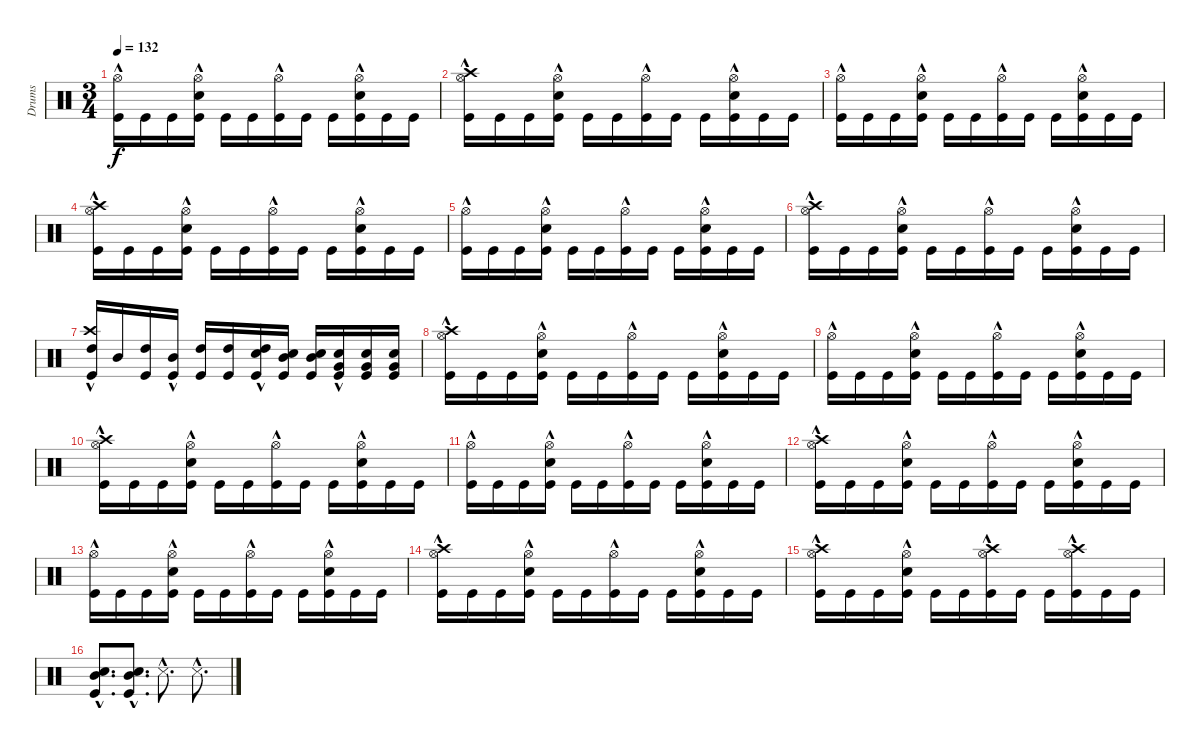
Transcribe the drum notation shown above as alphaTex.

\track ("Drums" "Drums") {instrument percussion}
\staff {score}
\articulation defaults
\ts (3 4)
\tempo 132
\clef neutral
\ks c
("Hi-Hat (open)"{hac} "Kick (hit)").16{dy f} "Kick (hit)".16 "Kick (hit)".16 ("Hi-Hat (open)"{hac} "Kick (hit)" "Electric Snare (hit)").16 "Kick (hit)".16 "Kick (hit)".16 ("Hi-Hat (open)"{hac} "Kick (hit)").16 "Kick (hit)".16 "Kick (hit)".16 ("Hi-Hat (open)"{hac} "Kick (hit)" "Electric Snare (hit)").16 "Kick (hit)".16 "Kick (hit)".16 |
("Crash high (hit)" "Hi-Hat (open)"{hac} "Kick (hit)").16 "Kick (hit)".16 "Kick (hit)".16 ("Hi-Hat (open)"{hac} "Kick (hit)" "Electric Snare (hit)").16 "Kick (hit)".16 "Kick (hit)".16 ("Hi-Hat (open)"{hac} "Kick (hit)").16 "Kick (hit)".16 "Kick (hit)".16 ("Hi-Hat (open)"{hac} "Kick (hit)" "Electric Snare (hit)").16 "Kick (hit)".16 "Kick (hit)".16 |
("Hi-Hat (open)"{hac} "Kick (hit)").16 "Kick (hit)".16 "Kick (hit)".16 ("Hi-Hat (open)"{hac} "Kick (hit)" "Electric Snare (hit)").16 "Kick (hit)".16 "Kick (hit)".16 ("Hi-Hat (open)"{hac} "Kick (hit)").16 "Kick (hit)".16 "Kick (hit)".16 ("Hi-Hat (open)"{hac} "Kick (hit)" "Electric Snare (hit)").16 "Kick (hit)".16 "Kick (hit)".16 |
("Crash high (hit)" "Hi-Hat (open)"{hac} "Kick (hit)").16 "Kick (hit)".16 "Kick (hit)".16 ("Hi-Hat (open)"{hac} "Kick (hit)" "Electric Snare (hit)").16 "Kick (hit)".16 "Kick (hit)".16 ("Hi-Hat (open)"{hac} "Kick (hit)").16 "Kick (hit)".16 "Kick (hit)".16 ("Hi-Hat (open)"{hac} "Kick (hit)" "Electric Snare (hit)").16 "Kick (hit)".16 "Kick (hit)".16 |
("Hi-Hat (open)"{hac} "Kick (hit)").16 "Kick (hit)".16 "Kick (hit)".16 ("Hi-Hat (open)"{hac} "Kick (hit)" "Electric Snare (hit)").16 "Kick (hit)".16 "Kick (hit)".16 ("Hi-Hat (open)"{hac} "Kick (hit)").16 "Kick (hit)".16 "Kick (hit)".16 ("Hi-Hat (open)"{hac} "Kick (hit)" "Electric Snare (hit)").16 "Kick (hit)".16 "Kick (hit)".16 |
("Crash high (hit)" "Hi-Hat (open)"{hac} "Kick (hit)").16 "Kick (hit)".16 "Kick (hit)".16 ("Hi-Hat (open)"{hac} "Kick (hit)" "Electric Snare (hit)").16 "Kick (hit)".16 "Kick (hit)".16 ("Hi-Hat (open)"{hac} "Kick (hit)").16 "Kick (hit)".16 "Kick (hit)".16 ("Hi-Hat (open)"{hac} "Kick (hit)" "Electric Snare (hit)").16 "Kick (hit)".16 "Kick (hit)".16 |
("High Tom (hit)"{hac} "Crash high (hit)" "Kick (hit)").16 "Mid Tom (hit)".16 ("High Tom (hit)" "Kick (hit)").16 ("Mid Tom (hit)"{hac} "Kick (hit)").16 ("High Tom (hit)" "Kick (hit)").16 ("High Tom (hit)" "Kick (hit)").16 ("High Tom (hit)"{hac} "Snare (hit) 2" "Kick (hit)").16 ("Mid Tom (hit)" "Snare (hit) 2" "Kick (hit)").16 ("Mid Tom (hit)" "Snare (hit) 2" "Kick (hit)").16 ("Very Low Tom (hit)"{hac} "Snare (hit) 2" "Kick (hit)").16 ("Very Low Tom (hit)" "Snare (hit) 2" "Kick (hit)").16 ("Very Low Tom (hit)" "Snare (hit) 2" "Kick (hit)").16 |
("Crash high (hit)" "Hi-Hat (open)"{hac} "Kick (hit)").16 "Kick (hit)".16 "Kick (hit)".16 ("Hi-Hat (open)"{hac} "Kick (hit)" "Electric Snare (hit)").16 "Kick (hit)".16 "Kick (hit)".16 ("Hi-Hat (open)"{hac} "Kick (hit)").16 "Kick (hit)".16 "Kick (hit)".16 ("Hi-Hat (open)"{hac} "Kick (hit)" "Electric Snare (hit)").16 "Kick (hit)".16 "Kick (hit)".16 |
("Hi-Hat (open)"{hac} "Kick (hit)").16 "Kick (hit)".16 "Kick (hit)".16 ("Hi-Hat (open)"{hac} "Kick (hit)" "Electric Snare (hit)").16 "Kick (hit)".16 "Kick (hit)".16 ("Hi-Hat (open)"{hac} "Kick (hit)").16 "Kick (hit)".16 "Kick (hit)".16 ("Hi-Hat (open)"{hac} "Kick (hit)" "Electric Snare (hit)").16 "Kick (hit)".16 "Kick (hit)".16 |
("Crash high (hit)" "Hi-Hat (open)"{hac} "Kick (hit)").16 "Kick (hit)".16 "Kick (hit)".16 ("Hi-Hat (open)"{hac} "Kick (hit)" "Electric Snare (hit)").16 "Kick (hit)".16 "Kick (hit)".16 ("Hi-Hat (open)"{hac} "Kick (hit)").16 "Kick (hit)".16 "Kick (hit)".16 ("Hi-Hat (open)"{hac} "Kick (hit)" "Electric Snare (hit)").16 "Kick (hit)".16 "Kick (hit)".16 |
("Hi-Hat (open)"{hac} "Kick (hit)").16 "Kick (hit)".16 "Kick (hit)".16 ("Hi-Hat (open)"{hac} "Kick (hit)" "Electric Snare (hit)").16 "Kick (hit)".16 "Kick (hit)".16 ("Hi-Hat (open)"{hac} "Kick (hit)").16 "Kick (hit)".16 "Kick (hit)".16 ("Hi-Hat (open)"{hac} "Kick (hit)" "Electric Snare (hit)").16 "Kick (hit)".16 "Kick (hit)".16 |
("Crash high (hit)" "Hi-Hat (open)"{hac} "Kick (hit)").16 "Kick (hit)".16 "Kick (hit)".16 ("Hi-Hat (open)"{hac} "Kick (hit)" "Electric Snare (hit)").16 "Kick (hit)".16 "Kick (hit)".16 ("Hi-Hat (open)"{hac} "Kick (hit)").16 "Kick (hit)".16 "Kick (hit)".16 ("Hi-Hat (open)"{hac} "Kick (hit)" "Electric Snare (hit)").16 "Kick (hit)".16 "Kick (hit)".16 |
("Hi-Hat (open)"{hac} "Kick (hit)").16 "Kick (hit)".16 "Kick (hit)".16 ("Hi-Hat (open)"{hac} "Kick (hit)" "Electric Snare (hit)").16 "Kick (hit)".16 "Kick (hit)".16 ("Hi-Hat (open)"{hac} "Kick (hit)").16 "Kick (hit)".16 "Kick (hit)".16 ("Hi-Hat (open)"{hac} "Kick (hit)" "Electric Snare (hit)").16 "Kick (hit)".16 "Kick (hit)".16 |
("Crash high (hit)" "Hi-Hat (open)"{hac} "Kick (hit)").16 "Kick (hit)".16 "Kick (hit)".16 ("Hi-Hat (open)"{hac} "Kick (hit)" "Electric Snare (hit)").16 "Kick (hit)".16 "Kick (hit)".16 ("Hi-Hat (open)"{hac} "Kick (hit)").16 "Kick (hit)".16 "Kick (hit)".16 ("Hi-Hat (open)"{hac} "Kick (hit)" "Electric Snare (hit)").16 "Kick (hit)".16 "Kick (hit)".16 |
("Crash high (hit)" "Hi-Hat (open)"{hac} "Kick (hit)").16 "Kick (hit)".16 "Kick (hit)".16 ("Hi-Hat (open)"{hac} "Kick (hit)" "Electric Snare (hit)").16 "Kick (hit)".16 "Kick (hit)".16 ("Hi-Hat (open)"{hac} "Kick (hit)" "Crash high (hit)").16 "Kick (hit)".16 "Kick (hit)".16 ("Hi-Hat (open)"{hac} "Kick (hit)" "Crash high (hit)").16 "Kick (hit)".16 "Kick (hit)".16 |
("Kick (hit)"{hac} "Snare (hit) 2"{hac} "Mid Tom (hit)"{hac}).8{d} ("Kick (hit)"{hac} "Snare (hit) 2"{hac} "Mid Tom (hit)"{hac}).8{d} "Metronome (hit)"{hac}.8{d} "Metronome (hit)"{hac}.8{d}
